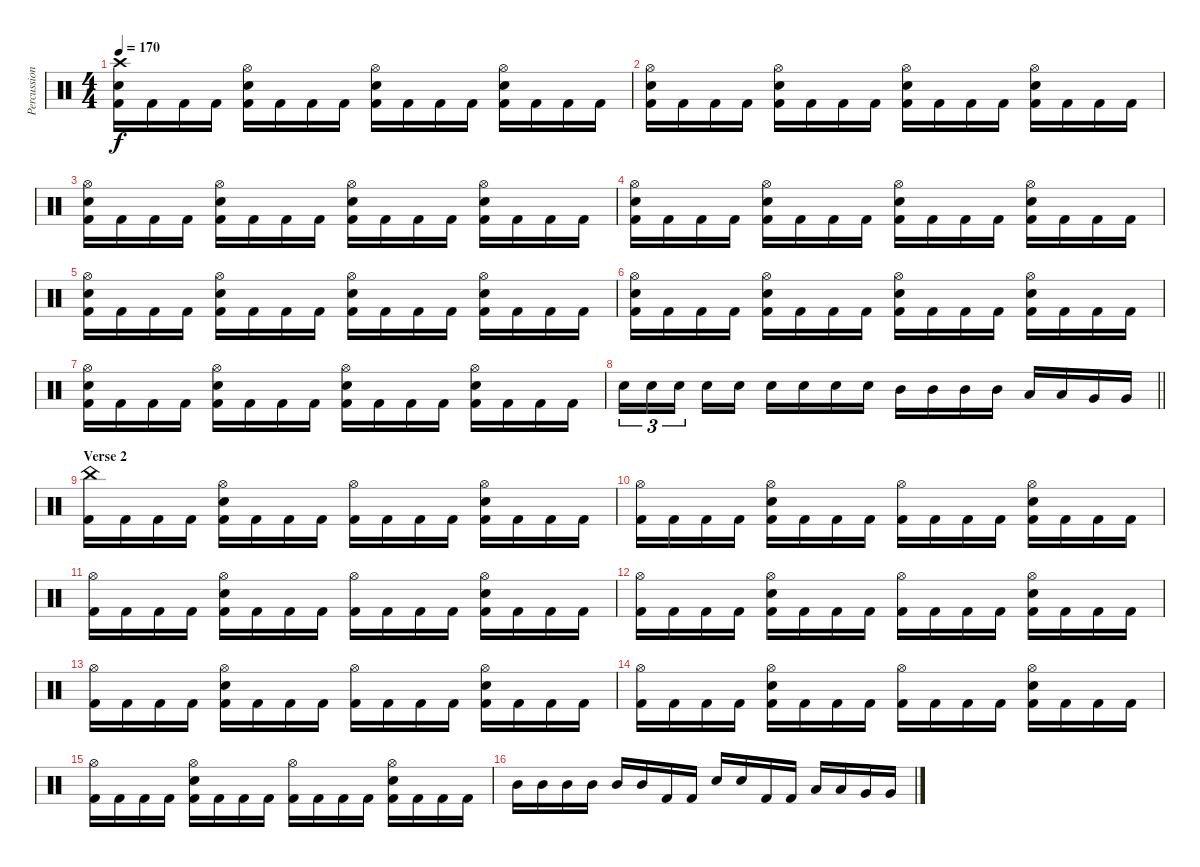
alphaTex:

\track ("Percussions" "Percussion") {instrument percussion}
\staff {score}
\articulation defaults
\ts (4 4)
\tempo 170
\clef neutral
\ks c
("Crash high (hit)" "Electric Snare (hit)" "Kick (hit) 2").16{dy f} "Kick (hit) 2".16 "Kick (hit) 2".16 "Kick (hit) 2".16 ("Hi-Hat (open)" "Electric Snare (hit)" "Kick (hit) 2").16 "Kick (hit) 2".16 "Kick (hit) 2".16 "Kick (hit) 2".16 ("Hi-Hat (open)" "Electric Snare (hit)" "Kick (hit) 2").16 "Kick (hit) 2".16 "Kick (hit) 2".16 "Kick (hit) 2".16 ("Hi-Hat (open)" "Electric Snare (hit)" "Kick (hit) 2").16 "Kick (hit) 2".16 "Kick (hit) 2".16 "Kick (hit) 2".16 |
("Hi-Hat (open)" "Electric Snare (hit)" "Kick (hit) 2").16 "Kick (hit) 2".16 "Kick (hit) 2".16 "Kick (hit) 2".16 ("Hi-Hat (open)" "Electric Snare (hit)" "Kick (hit) 2").16 "Kick (hit) 2".16 "Kick (hit) 2".16 "Kick (hit) 2".16 ("Hi-Hat (open)" "Electric Snare (hit)" "Kick (hit) 2").16 "Kick (hit) 2".16 "Kick (hit) 2".16 "Kick (hit) 2".16 ("Hi-Hat (open)" "Electric Snare (hit)" "Kick (hit) 2").16 "Kick (hit) 2".16 "Kick (hit) 2".16 "Kick (hit) 2".16 |
("Hi-Hat (open)" "Electric Snare (hit)" "Kick (hit) 2").16 "Kick (hit) 2".16 "Kick (hit) 2".16 "Kick (hit) 2".16 ("Hi-Hat (open)" "Electric Snare (hit)" "Kick (hit) 2").16 "Kick (hit) 2".16 "Kick (hit) 2".16 "Kick (hit) 2".16 ("Hi-Hat (open)" "Electric Snare (hit)" "Kick (hit) 2").16 "Kick (hit) 2".16 "Kick (hit) 2".16 "Kick (hit) 2".16 ("Hi-Hat (open)" "Electric Snare (hit)" "Kick (hit) 2").16 "Kick (hit) 2".16 "Kick (hit) 2".16 "Kick (hit) 2".16 |
("Hi-Hat (open)" "Electric Snare (hit)" "Kick (hit) 2").16 "Kick (hit) 2".16 "Kick (hit) 2".16 "Kick (hit) 2".16 ("Hi-Hat (open)" "Electric Snare (hit)" "Kick (hit) 2").16 "Kick (hit) 2".16 "Kick (hit) 2".16 "Kick (hit) 2".16 ("Hi-Hat (open)" "Electric Snare (hit)" "Kick (hit) 2").16 "Kick (hit) 2".16 "Kick (hit) 2".16 "Kick (hit) 2".16 ("Hi-Hat (open)" "Electric Snare (hit)" "Kick (hit) 2").16 "Kick (hit) 2".16 "Kick (hit) 2".16 "Kick (hit) 2".16 |
("Hi-Hat (open)" "Electric Snare (hit)" "Kick (hit) 2").16 "Kick (hit) 2".16 "Kick (hit) 2".16 "Kick (hit) 2".16 ("Hi-Hat (open)" "Electric Snare (hit)" "Kick (hit) 2").16 "Kick (hit) 2".16 "Kick (hit) 2".16 "Kick (hit) 2".16 ("Hi-Hat (open)" "Electric Snare (hit)" "Kick (hit) 2").16 "Kick (hit) 2".16 "Kick (hit) 2".16 "Kick (hit) 2".16 ("Hi-Hat (open)" "Electric Snare (hit)" "Kick (hit) 2").16 "Kick (hit) 2".16 "Kick (hit) 2".16 "Kick (hit) 2".16 |
("Hi-Hat (open)" "Electric Snare (hit)" "Kick (hit) 2").16 "Kick (hit) 2".16 "Kick (hit) 2".16 "Kick (hit) 2".16 ("Hi-Hat (open)" "Electric Snare (hit)" "Kick (hit) 2").16 "Kick (hit) 2".16 "Kick (hit) 2".16 "Kick (hit) 2".16 ("Hi-Hat (open)" "Electric Snare (hit)" "Kick (hit) 2").16 "Kick (hit) 2".16 "Kick (hit) 2".16 "Kick (hit) 2".16 ("Hi-Hat (open)" "Electric Snare (hit)" "Kick (hit) 2").16 "Kick (hit) 2".16 "Kick (hit) 2".16 "Kick (hit) 2".16 |
("Hi-Hat (open)" "Electric Snare (hit)" "Kick (hit) 2").16 "Kick (hit) 2".16 "Kick (hit) 2".16 "Kick (hit) 2".16 ("Hi-Hat (open)" "Electric Snare (hit)" "Kick (hit) 2").16 "Kick (hit) 2".16 "Kick (hit) 2".16 "Kick (hit) 2".16 ("Hi-Hat (open)" "Electric Snare (hit)" "Kick (hit) 2").16 "Kick (hit) 2".16 "Kick (hit) 2".16 "Kick (hit) 2".16 ("Hi-Hat (open)" "Electric Snare (hit)" "Kick (hit) 2").16 "Kick (hit) 2".16 "Kick (hit) 2".16 "Kick (hit) 2".16 |
\barLineRight lightlight "Electric Snare (hit)".16{tu (3 2)} "Electric Snare (hit)".16{tu (3 2)} "Electric Snare (hit)".16{tu (3 2) beam splitsecondary} "Electric Snare (hit)".16 "Electric Snare (hit)".16 "Electric Snare (hit)".16 "Electric Snare (hit)".16 "Electric Snare (hit)".16 "Electric Snare (hit)".16 "Mid Tom (hit)".16 "Mid Tom (hit)".16 "Mid Tom (hit)".16 "Mid Tom (hit)".16 "Low Tom (hit)".16 "Low Tom (hit)".16 "Very Low Tom (hit)".16 "Very Low Tom (hit)".16
|
\section ("" "Verse 2")
("China (hit)" "Kick (hit) 2").16 "Kick (hit) 2".16 "Kick (hit) 2".16 "Kick (hit) 2".16 ("Hi-Hat (open)" "Electric Snare (hit)" "Kick (hit) 2").16 "Kick (hit) 2".16 "Kick (hit) 2".16 "Kick (hit) 2".16 ("Hi-Hat (open)" "Kick (hit) 2").16 "Kick (hit) 2".16 "Kick (hit) 2".16 "Kick (hit) 2".16 ("Hi-Hat (open)" "Electric Snare (hit)" "Kick (hit) 2").16 "Kick (hit) 2".16 "Kick (hit) 2".16 "Kick (hit) 2".16 |
("Hi-Hat (open)" "Kick (hit) 2").16 "Kick (hit) 2".16 "Kick (hit) 2".16 "Kick (hit) 2".16 ("Hi-Hat (open)" "Electric Snare (hit)" "Kick (hit) 2").16 "Kick (hit) 2".16 "Kick (hit) 2".16 "Kick (hit) 2".16 ("Hi-Hat (open)" "Kick (hit) 2").16 "Kick (hit) 2".16 "Kick (hit) 2".16 "Kick (hit) 2".16 ("Hi-Hat (open)" "Electric Snare (hit)" "Kick (hit) 2").16 "Kick (hit) 2".16 "Kick (hit) 2".16 "Kick (hit) 2".16 |
("Hi-Hat (open)" "Kick (hit) 2").16 "Kick (hit) 2".16 "Kick (hit) 2".16 "Kick (hit) 2".16 ("Hi-Hat (open)" "Electric Snare (hit)" "Kick (hit) 2").16 "Kick (hit) 2".16 "Kick (hit) 2".16 "Kick (hit) 2".16 ("Hi-Hat (open)" "Kick (hit) 2").16 "Kick (hit) 2".16 "Kick (hit) 2".16 "Kick (hit) 2".16 ("Hi-Hat (open)" "Electric Snare (hit)" "Kick (hit) 2").16 "Kick (hit) 2".16 "Kick (hit) 2".16 "Kick (hit) 2".16 |
("Hi-Hat (open)" "Kick (hit) 2").16 "Kick (hit) 2".16 "Kick (hit) 2".16 "Kick (hit) 2".16 ("Hi-Hat (open)" "Electric Snare (hit)" "Kick (hit) 2").16 "Kick (hit) 2".16 "Kick (hit) 2".16 "Kick (hit) 2".16 ("Hi-Hat (open)" "Kick (hit) 2").16 "Kick (hit) 2".16 "Kick (hit) 2".16 "Kick (hit) 2".16 ("Hi-Hat (open)" "Electric Snare (hit)" "Kick (hit) 2").16 "Kick (hit) 2".16 "Kick (hit) 2".16 "Kick (hit) 2".16 |
("Hi-Hat (open)" "Kick (hit) 2").16 "Kick (hit) 2".16 "Kick (hit) 2".16 "Kick (hit) 2".16 ("Hi-Hat (open)" "Electric Snare (hit)" "Kick (hit) 2").16 "Kick (hit) 2".16 "Kick (hit) 2".16 "Kick (hit) 2".16 ("Hi-Hat (open)" "Kick (hit) 2").16 "Kick (hit) 2".16 "Kick (hit) 2".16 "Kick (hit) 2".16 ("Hi-Hat (open)" "Electric Snare (hit)" "Kick (hit) 2").16 "Kick (hit) 2".16 "Kick (hit) 2".16 "Kick (hit) 2".16 |
("Hi-Hat (open)" "Kick (hit) 2").16 "Kick (hit) 2".16 "Kick (hit) 2".16 "Kick (hit) 2".16 ("Hi-Hat (open)" "Electric Snare (hit)" "Kick (hit) 2").16 "Kick (hit) 2".16 "Kick (hit) 2".16 "Kick (hit) 2".16 ("Hi-Hat (open)" "Kick (hit) 2").16 "Kick (hit) 2".16 "Kick (hit) 2".16 "Kick (hit) 2".16 ("Hi-Hat (open)" "Electric Snare (hit)" "Kick (hit) 2").16 "Kick (hit) 2".16 "Kick (hit) 2".16 "Kick (hit) 2".16 |
("Hi-Hat (open)" "Kick (hit) 2").16 "Kick (hit) 2".16 "Kick (hit) 2".16 "Kick (hit) 2".16 ("Hi-Hat (open)" "Electric Snare (hit)" "Kick (hit) 2").16 "Kick (hit) 2".16 "Kick (hit) 2".16 "Kick (hit) 2".16 ("Hi-Hat (open)" "Kick (hit) 2").16 "Kick (hit) 2".16 "Kick (hit) 2".16 "Kick (hit) 2".16 ("Hi-Hat (open)" "Electric Snare (hit)" "Kick (hit) 2").16 "Kick (hit) 2".16 "Kick (hit) 2".16 "Kick (hit) 2".16 |
"Mid Tom (hit)".16 "Mid Tom (hit)".16 "Mid Tom (hit)".16 "Mid Tom (hit)".16 "Mid Tom (hit)".16 "Mid Tom (hit)".16 "Kick (hit) 2".16 "Kick (hit) 2".16 "Electric Snare (hit)".16 "Electric Snare (hit)".16 "Kick (hit) 2".16 "Kick (hit) 2".16 "Low Tom (hit)".16 "Low Tom (hit)".16 "Very Low Tom (hit)".16 "Very Low Tom (hit)".16
